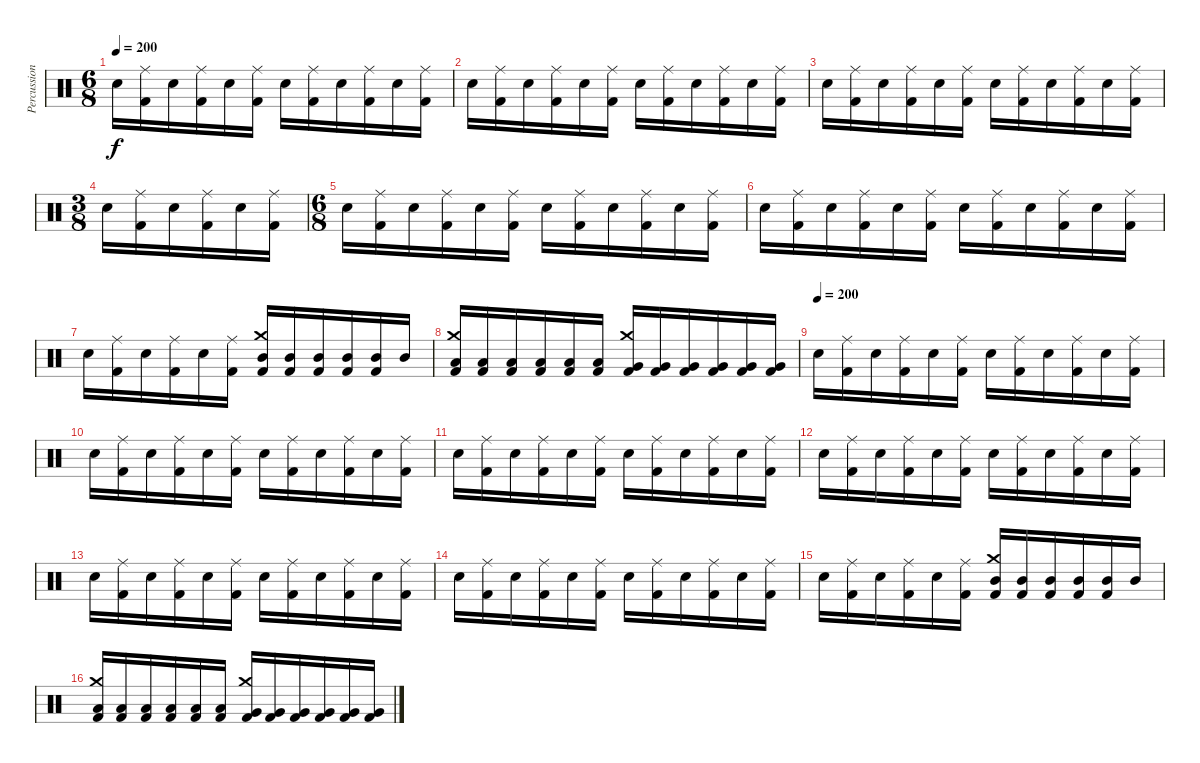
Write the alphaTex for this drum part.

\track ("Percussion" "Percussion") {instrument percussion}
\staff {score}
\articulation defaults
\ts (6 8)
\tempo 200
\clef neutral
\ks c "Electric Snare (hit)".16{dy f}
("Ride (middle)" "Kick (hit) 2").16 "Electric Snare (hit)".16 ("Ride (middle)" "Kick (hit) 2").16 "Electric Snare (hit)".16 ("Ride (middle)" "Kick (hit) 2").16 "Electric Snare (hit)".16 ("Ride (middle)" "Kick (hit) 2").16 "Electric Snare (hit)".16 ("Ride (middle)" "Kick (hit) 2").16 "Electric Snare (hit)".16 ("Ride (middle)" "Kick (hit) 2").16 |
"Electric Snare (hit)".16 ("Ride (middle)" "Kick (hit) 2").16 "Electric Snare (hit)".16 ("Ride (middle)" "Kick (hit) 2").16 "Electric Snare (hit)".16 ("Ride (middle)" "Kick (hit) 2").16 "Electric Snare (hit)".16 ("Ride (middle)" "Kick (hit) 2").16 "Electric Snare (hit)".16 ("Ride (middle)" "Kick (hit) 2").16 "Electric Snare (hit)".16 ("Ride (middle)" "Kick (hit) 2").16 |
"Electric Snare (hit)".16 ("Ride (middle)" "Kick (hit) 2").16 "Electric Snare (hit)".16 ("Ride (middle)" "Kick (hit) 2").16 "Electric Snare (hit)".16 ("Ride (middle)" "Kick (hit) 2").16 "Electric Snare (hit)".16 ("Ride (middle)" "Kick (hit) 2").16 "Electric Snare (hit)".16 ("Ride (middle)" "Kick (hit) 2").16 "Electric Snare (hit)".16 ("Ride (middle)" "Kick (hit) 2").16 |
\ts (3 8)
"Electric Snare (hit)".16 ("Ride (middle)" "Kick (hit) 2").16 "Electric Snare (hit)".16 ("Ride (middle)" "Kick (hit) 2").16 "Electric Snare (hit)".16 ("Ride (middle)" "Kick (hit) 2").16 |
\ts (6 8)
"Electric Snare (hit)".16 ("Ride (middle)" "Kick (hit) 2").16 "Electric Snare (hit)".16 ("Ride (middle)" "Kick (hit) 2").16 "Electric Snare (hit)".16 ("Ride (middle)" "Kick (hit) 2").16 "Electric Snare (hit)".16 ("Ride (middle)" "Kick (hit) 2").16 "Electric Snare (hit)".16 ("Ride (middle)" "Kick (hit) 2").16 "Electric Snare (hit)".16 ("Ride (middle)" "Kick (hit) 2").16 |
"Electric Snare (hit)".16 ("Ride (middle)" "Kick (hit) 2").16 "Electric Snare (hit)".16 ("Ride (middle)" "Kick (hit) 2").16 "Electric Snare (hit)".16 ("Ride (middle)" "Kick (hit) 2").16 "Electric Snare (hit)".16 ("Ride (middle)" "Kick (hit) 2").16 "Electric Snare (hit)".16 ("Ride (middle)" "Kick (hit) 2").16 "Electric Snare (hit)".16 ("Ride (middle)" "Kick (hit) 2").16 |
"Electric Snare (hit)".16 ("Ride (middle)" "Kick (hit) 2").16 "Electric Snare (hit)".16 ("Ride (middle)" "Kick (hit) 2").16 "Electric Snare (hit)".16 ("Ride (middle)" "Kick (hit) 2").16 ("Crash medium (hit)" "Mid Tom (hit)" "Kick (hit) 2").16 ("Mid Tom (hit)" "Kick (hit) 2").16 ("Mid Tom (hit)" "Kick (hit) 2").16 ("Mid Tom (hit)" "Kick (hit) 2").16 ("Mid Tom (hit)" "Kick (hit) 2").16 "Mid Tom (hit)".16 |
("Crash medium (hit)" "Low Tom (hit)" "Kick (hit) 2").16 ("Low Tom (hit)" "Kick (hit) 2").16 ("Low Tom (hit)" "Kick (hit) 2").16 ("Low Tom (hit)" "Kick (hit) 2").16 ("Low Tom (hit)" "Kick (hit) 2").16 ("Low Tom (hit)" "Kick (hit) 2").16 ("Crash medium (hit)" "Very Low Tom (hit)" "Kick (hit) 2").16 ("Very Low Tom (hit)" "Kick (hit) 2").16 ("Very Low Tom (hit)" "Kick (hit) 2").16 ("Very Low Tom (hit)" "Kick (hit) 2").16 ("Very Low Tom (hit)" "Kick (hit) 2").16 ("Very Low Tom (hit)" "Kick (hit) 2").16 |
\tempo (200)
"Electric Snare (hit)".16 ("Ride (middle)" "Kick (hit) 2").16 "Electric Snare (hit)".16 ("Ride (middle)" "Kick (hit) 2").16 "Electric Snare (hit)".16 ("Ride (middle)" "Kick (hit) 2").16 "Electric Snare (hit)".16 ("Ride (middle)" "Kick (hit) 2").16 "Electric Snare (hit)".16 ("Ride (middle)" "Kick (hit) 2").16 "Electric Snare (hit)".16 ("Ride (middle)" "Kick (hit) 2").16 |
"Electric Snare (hit)".16 ("Ride (middle)" "Kick (hit) 2").16 "Electric Snare (hit)".16 ("Ride (middle)" "Kick (hit) 2").16 "Electric Snare (hit)".16 ("Ride (middle)" "Kick (hit) 2").16 "Electric Snare (hit)".16 ("Ride (middle)" "Kick (hit) 2").16 "Electric Snare (hit)".16 ("Ride (middle)" "Kick (hit) 2").16 "Electric Snare (hit)".16 ("Ride (middle)" "Kick (hit) 2").16 |
"Electric Snare (hit)".16 ("Ride (middle)" "Kick (hit) 2").16 "Electric Snare (hit)".16 ("Ride (middle)" "Kick (hit) 2").16 "Electric Snare (hit)".16 ("Ride (middle)" "Kick (hit) 2").16 "Electric Snare (hit)".16 ("Ride (middle)" "Kick (hit) 2").16 "Electric Snare (hit)".16 ("Ride (middle)" "Kick (hit) 2").16 "Electric Snare (hit)".16 ("Ride (middle)" "Kick (hit) 2").16 |
"Electric Snare (hit)".16 ("Ride (middle)" "Kick (hit) 2").16 "Electric Snare (hit)".16 ("Ride (middle)" "Kick (hit) 2").16 "Electric Snare (hit)".16 ("Ride (middle)" "Kick (hit) 2").16 "Electric Snare (hit)".16 ("Ride (middle)" "Kick (hit) 2").16 "Electric Snare (hit)".16 ("Ride (middle)" "Kick (hit) 2").16 "Electric Snare (hit)".16 ("Ride (middle)" "Kick (hit) 2").16 |
"Electric Snare (hit)".16 ("Ride (middle)" "Kick (hit) 2").16 "Electric Snare (hit)".16 ("Ride (middle)" "Kick (hit) 2").16 "Electric Snare (hit)".16 ("Ride (middle)" "Kick (hit) 2").16 "Electric Snare (hit)".16 ("Ride (middle)" "Kick (hit) 2").16 "Electric Snare (hit)".16 ("Ride (middle)" "Kick (hit) 2").16 "Electric Snare (hit)".16 ("Ride (middle)" "Kick (hit) 2").16 |
"Electric Snare (hit)".16 ("Ride (middle)" "Kick (hit) 2").16 "Electric Snare (hit)".16 ("Ride (middle)" "Kick (hit) 2").16 "Electric Snare (hit)".16 ("Ride (middle)" "Kick (hit) 2").16 "Electric Snare (hit)".16 ("Ride (middle)" "Kick (hit) 2").16 "Electric Snare (hit)".16 ("Ride (middle)" "Kick (hit) 2").16 "Electric Snare (hit)".16 ("Ride (middle)" "Kick (hit) 2").16 |
"Electric Snare (hit)".16 ("Ride (middle)" "Kick (hit) 2").16 "Electric Snare (hit)".16 ("Ride (middle)" "Kick (hit) 2").16 "Electric Snare (hit)".16 ("Ride (middle)" "Kick (hit) 2").16 ("Crash medium (hit)" "Mid Tom (hit)" "Kick (hit) 2").16 ("Mid Tom (hit)" "Kick (hit) 2").16 ("Mid Tom (hit)" "Kick (hit) 2").16 ("Mid Tom (hit)" "Kick (hit) 2").16 ("Mid Tom (hit)" "Kick (hit) 2").16 "Mid Tom (hit)".16 |
("Crash medium (hit)" "Low Tom (hit)" "Kick (hit) 2").16 ("Low Tom (hit)" "Kick (hit) 2").16 ("Low Tom (hit)" "Kick (hit) 2").16 ("Low Tom (hit)" "Kick (hit) 2").16 ("Low Tom (hit)" "Kick (hit) 2").16 ("Low Tom (hit)" "Kick (hit) 2").16 ("Crash medium (hit)" "Very Low Tom (hit)" "Kick (hit) 2").16 ("Very Low Tom (hit)" "Kick (hit) 2").16 ("Very Low Tom (hit)" "Kick (hit) 2").16 ("Very Low Tom (hit)" "Kick (hit) 2").16 ("Very Low Tom (hit)" "Kick (hit) 2").16 ("Very Low Tom (hit)" "Kick (hit) 2").16
